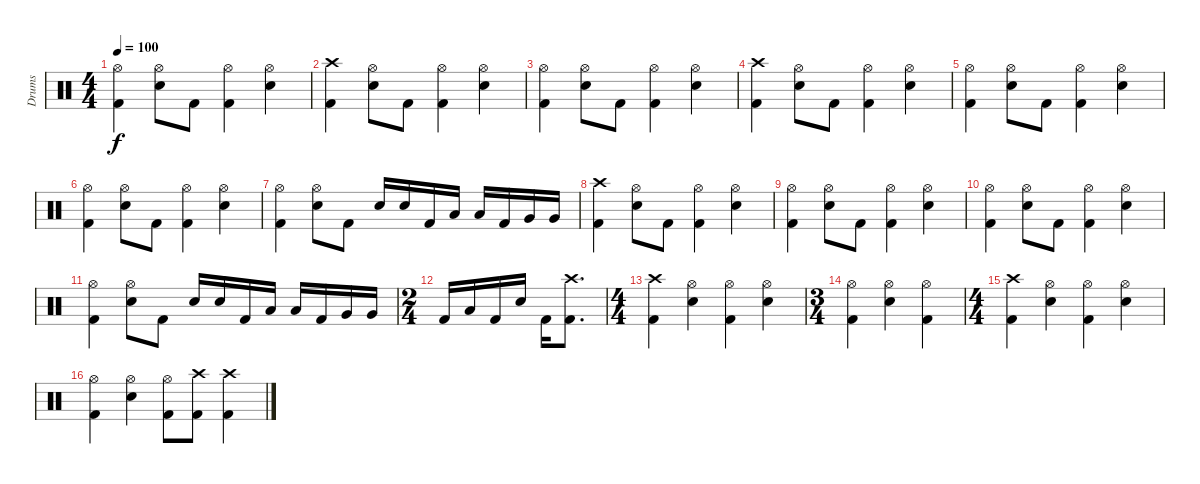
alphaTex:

\track ("Drums" "Drums") {instrument percussion}
\staff {score}
\articulation defaults
\ts (4 4)
\tempo 100
\clef neutral
\ks c
("Kick (hit) 2" "Hi-Hat (open)").4{dy f} ("Snare (hit) 2" "Hi-Hat (open)").8 "Kick (hit) 2".8 ("Kick (hit) 2" "Hi-Hat (open)").4 ("Snare (hit) 2" "Hi-Hat (open)").4 |
("Kick (hit) 2" "Crash high (hit)").4 ("Snare (hit) 2" "Hi-Hat (open)").8 "Kick (hit) 2".8 ("Kick (hit) 2" "Hi-Hat (open)").4 ("Snare (hit) 2" "Hi-Hat (open)").4 |
("Kick (hit) 2" "Hi-Hat (open)").4 ("Snare (hit) 2" "Hi-Hat (open)").8 "Kick (hit) 2".8 ("Kick (hit) 2" "Hi-Hat (open)").4 ("Snare (hit) 2" "Hi-Hat (open)").4 |
("Kick (hit) 2" "Crash high (hit)").4 ("Snare (hit) 2" "Hi-Hat (open)").8 "Kick (hit) 2".8 ("Kick (hit) 2" "Hi-Hat (open)").4 ("Snare (hit) 2" "Hi-Hat (open)").4 |
("Kick (hit) 2" "Hi-Hat (open)").4 ("Snare (hit) 2" "Hi-Hat (open)").8 "Kick (hit) 2".8 ("Kick (hit) 2" "Hi-Hat (open)").4 ("Snare (hit) 2" "Hi-Hat (open)").4 |
("Kick (hit) 2" "Hi-Hat (open)").4 ("Snare (hit) 2" "Hi-Hat (open)").8 "Kick (hit) 2".8 ("Kick (hit) 2" "Hi-Hat (open)").4 ("Snare (hit) 2" "Hi-Hat (open)").4 |
("Kick (hit) 2" "Hi-Hat (open)").4 ("Snare (hit) 2" "Hi-Hat (open)").8 "Kick (hit) 2".8 "Snare (hit) 2".16 "Snare (hit) 2".16 "Kick (hit) 2".16 "Low Tom (hit)".16 "Low Tom (hit)".16 "Kick (hit) 2".16 "Very Low Tom (hit)".16 "Very Low Tom (hit)".16 |
("Kick (hit) 2" "Crash high (hit)").4 ("Snare (hit) 2" "Hi-Hat (open)").8 "Kick (hit) 2".8 ("Kick (hit) 2" "Hi-Hat (open)").4 ("Snare (hit) 2" "Hi-Hat (open)").4 |
("Kick (hit) 2" "Hi-Hat (open)").4 ("Snare (hit) 2" "Hi-Hat (open)").8 "Kick (hit) 2".8 ("Kick (hit) 2" "Hi-Hat (open)").4 ("Snare (hit) 2" "Hi-Hat (open)").4 |
("Kick (hit) 2" "Hi-Hat (open)").4 ("Snare (hit) 2" "Hi-Hat (open)").8 "Kick (hit) 2".8 ("Kick (hit) 2" "Hi-Hat (open)").4 ("Snare (hit) 2" "Hi-Hat (open)").4 |
("Kick (hit) 2" "Hi-Hat (open)").4 ("Snare (hit) 2" "Hi-Hat (open)").8 "Kick (hit) 2".8 "Snare (hit) 2".16 "Snare (hit) 2".16 "Kick (hit) 2".16 "Low Tom (hit)".16 "Low Tom (hit)".16 "Kick (hit) 2".16 "Very Low Tom (hit)".16 "Very Low Tom (hit)".16 |
\ts (2 4)
"Kick (hit) 2".16 "Low Floor Tom (hit)".16 "Kick (hit) 2".16 "Snare (hit) 2".16 "Kick (hit) 2".16 ("Kick (hit) 2" "Crash high (hit)").8{d} |
\ts (4 4)
("Kick (hit) 2" "Crash high (hit)").4 ("Snare (hit) 2" "Hi-Hat (open)").4 ("Kick (hit) 2" "Hi-Hat (open)").4 ("Snare (hit) 2" "Hi-Hat (open)").4 |
\ts (3 4)
("Kick (hit) 2" "Hi-Hat (open)").4 ("Snare (hit) 2" "Hi-Hat (open)").4 ("Kick (hit) 2" "Hi-Hat (open)").4 |
\ts (4 4)
("Kick (hit) 2" "Crash high (hit)").4 ("Snare (hit) 2" "Hi-Hat (open)").4 ("Kick (hit) 2" "Hi-Hat (open)").4 ("Snare (hit) 2" "Hi-Hat (open)").4 |
("Kick (hit) 2" "Hi-Hat (open)").4 ("Snare (hit) 2" "Hi-Hat (open)").4 ("Kick (hit) 2" "Hi-Hat (open)").8 ("Kick (hit) 2" "Crash high (hit)").8 ("Kick (hit) 2" "Crash high (hit)").4
